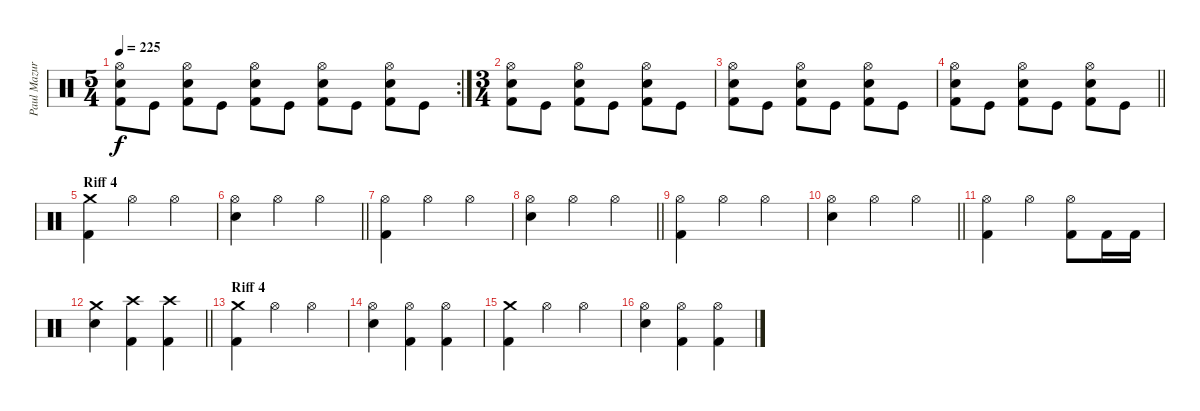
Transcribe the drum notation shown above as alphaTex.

\track ("Paul Mazurkiewicz" "Paul Mazur") {instrument percussion}
\staff {score}
\articulation defaults
\rc 2
\ts (5 4)
\tempo 225
\clef neutral
\ks c
("Hi-Hat (open)" "Electric Snare (hit)" "Kick (hit) 2").8{dy f} "Kick (hit)".8 ("Hi-Hat (open)" "Electric Snare (hit)" "Kick (hit) 2").8 "Kick (hit)".8 ("Hi-Hat (open)" "Electric Snare (hit)" "Kick (hit) 2").8 "Kick (hit)".8 ("Hi-Hat (open)" "Electric Snare (hit)" "Kick (hit) 2").8 "Kick (hit)".8 ("Hi-Hat (open)" "Electric Snare (hit)" "Kick (hit) 2").8 "Kick (hit)".8 |
\ts (3 4)
("Hi-Hat (open)" "Electric Snare (hit)" "Kick (hit) 2").8 "Kick (hit)".8 ("Hi-Hat (open)" "Electric Snare (hit)" "Kick (hit) 2").8 "Kick (hit)".8 ("Hi-Hat (open)" "Electric Snare (hit)" "Kick (hit) 2").8 "Kick (hit)".8 |
("Hi-Hat (open)" "Electric Snare (hit)" "Kick (hit) 2").8 "Kick (hit)".8 ("Hi-Hat (open)" "Electric Snare (hit)" "Kick (hit) 2").8 "Kick (hit)".8 ("Hi-Hat (open)" "Electric Snare (hit)" "Kick (hit) 2").8 "Kick (hit)".8 |
\barLineRight lightlight
("Hi-Hat (open)" "Electric Snare (hit)" "Kick (hit) 2").8 "Kick (hit)".8 ("Hi-Hat (open)" "Electric Snare (hit)" "Kick (hit) 2").8 "Kick (hit)".8 ("Hi-Hat (open)" "Electric Snare (hit)" "Kick (hit) 2").8 "Kick (hit)".8 |
\section ("" "Riff 4")
("Crash medium (hit)" "Kick (hit) 2").4 "Hi-Hat (open)".4 "Hi-Hat (open)".4 |
\barLineRight lightlight
("Hi-Hat (open)" "Electric Snare (hit)").4 "Hi-Hat (open)".4 "Hi-Hat (open)".4 |
("Hi-Hat (open)" "Kick (hit) 2").4 "Hi-Hat (open)".4 "Hi-Hat (open)".4 |
\barLineRight lightlight
("Hi-Hat (open)" "Electric Snare (hit)").4 "Hi-Hat (open)".4 "Hi-Hat (open)".4 |
("Hi-Hat (open)" "Kick (hit) 2").4 "Hi-Hat (open)".4 "Hi-Hat (open)".4 |
\barLineRight lightlight
("Hi-Hat (open)" "Electric Snare (hit)").4 "Hi-Hat (open)".4 "Hi-Hat (open)".4 |
("Hi-Hat (open)" "Kick (hit) 2").4 "Hi-Hat (open)".4 ("Hi-Hat (open)" "Kick (hit) 2").8 "Kick (hit) 2".16 "Kick (hit) 2".16 |
\barLineRight lightlight
("Crash medium (hit)" "Electric Snare (hit)").4 ("Crash high (hit)" "Kick (hit) 2").4 ("Crash high (hit)" "Kick (hit) 2").4 |
\section ("" "Riff 4")
("Crash medium (hit)" "Kick (hit) 2").4 "Hi-Hat (open)".4 "Hi-Hat (open)".4 |
("Hi-Hat (open)" "Electric Snare (hit)").4 ("Hi-Hat (open)" "Kick (hit) 2").4 ("Hi-Hat (open)" "Kick (hit) 2").4 |
("Crash medium (hit)" "Kick (hit) 2").4 "Hi-Hat (open)".4 "Hi-Hat (open)".4 |
("Hi-Hat (open)" "Electric Snare (hit)").4 ("Hi-Hat (open)" "Kick (hit) 2").4 ("Hi-Hat (open)" "Kick (hit) 2").4
